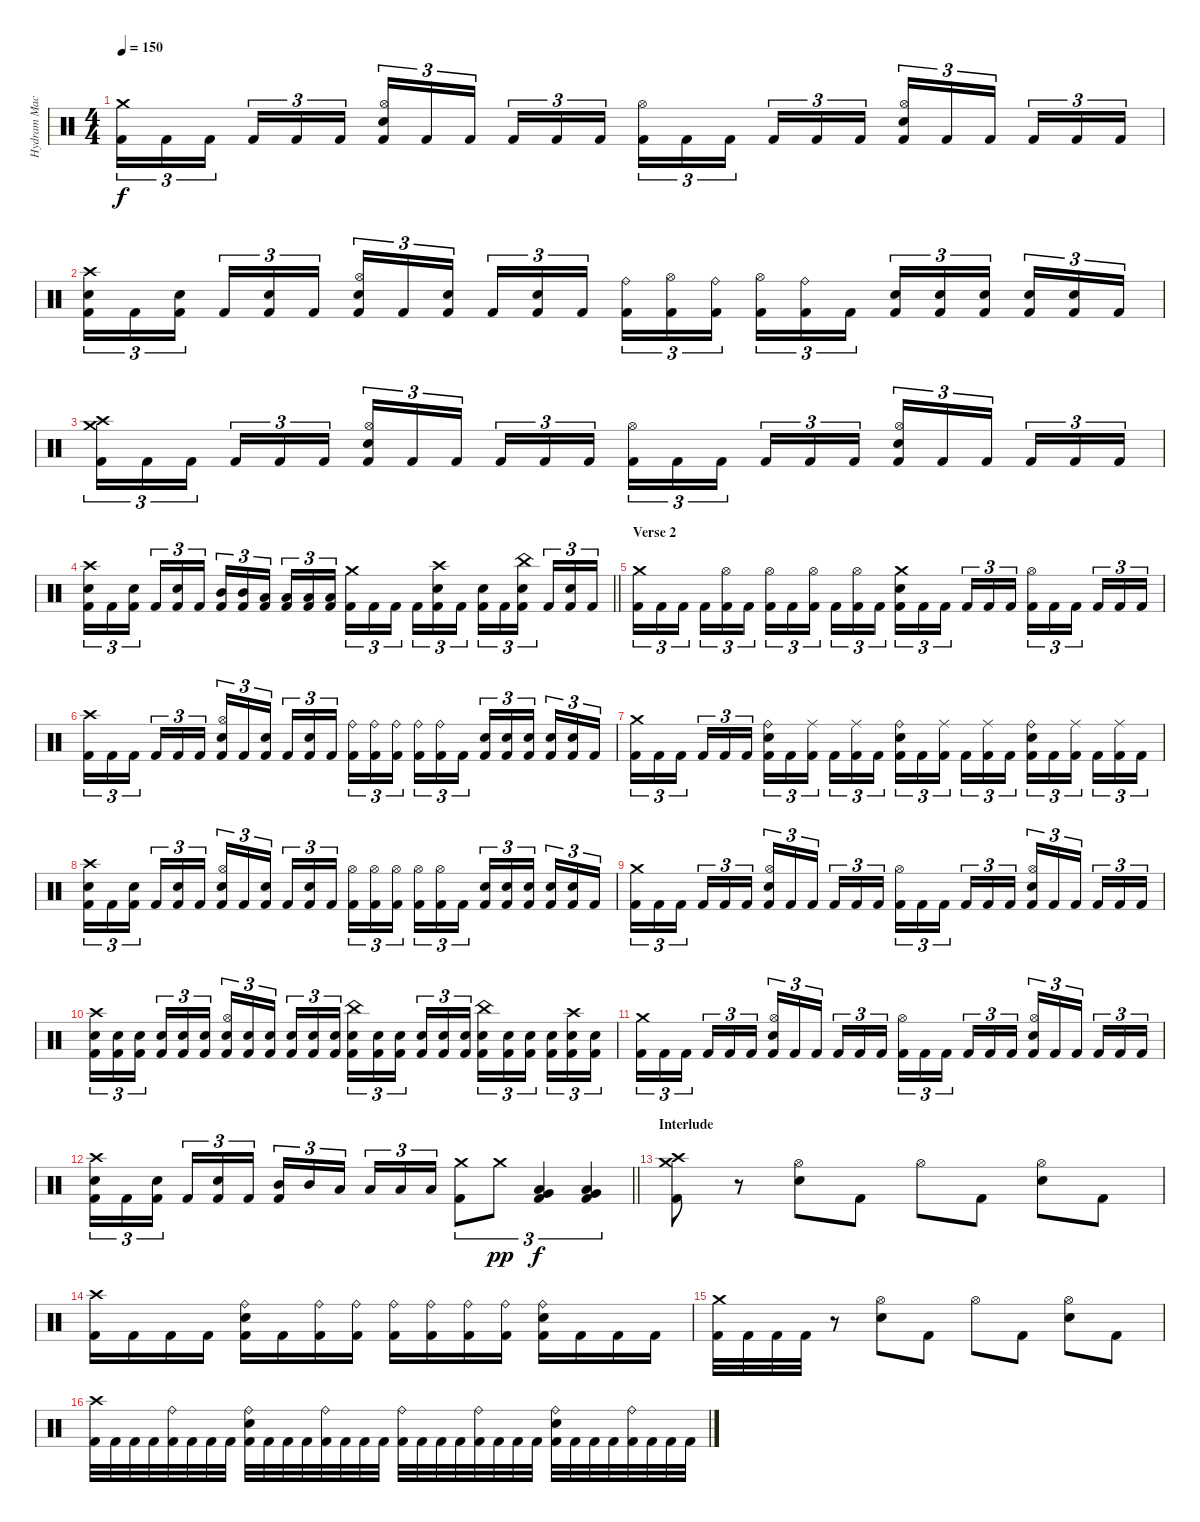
\track ("Hydram Machine" "Hydram Mac") {instrument percussion}
\staff {score}
\articulation defaults
\ts (4 4)
\tempo 150
\clef neutral
\ks c
("Crash medium (hit)" "Kick (hit) 2").16{tu (3 2) dy f} "Kick (hit) 2".16{tu (3 2)} "Kick (hit) 2".16{tu (3 2) beam splitsecondary} "Kick (hit) 2".16{tu (3 2)} "Kick (hit) 2".16{tu (3 2)} "Kick (hit) 2".16{tu (3 2)} ("Hi-Hat (open)" "Electric Snare (hit)" "Kick (hit) 2").16{tu (3 2)} "Kick (hit) 2".16{tu (3 2)} "Kick (hit) 2".16{tu (3 2) beam splitsecondary} "Kick (hit) 2".16{tu (3 2)} "Kick (hit) 2".16{tu (3 2)} "Kick (hit) 2".16{tu (3 2)} ("Hi-Hat (open)" "Kick (hit) 2").16{tu (3 2)} "Kick (hit) 2".16{tu (3 2)} "Kick (hit) 2".16{tu (3 2) beam splitsecondary} "Kick (hit) 2".16{tu (3 2)} "Kick (hit) 2".16{tu (3 2)} "Kick (hit) 2".16{tu (3 2)} ("Hi-Hat (open)" "Electric Snare (hit)" "Kick (hit) 2").16{tu (3 2)} "Kick (hit) 2".16{tu (3 2)} "Kick (hit) 2".16{tu (3 2) beam splitsecondary} "Kick (hit) 2".16{tu (3 2)} "Kick (hit) 2".16{tu (3 2)} "Kick (hit) 2".16{tu (3 2)} |
("Crash high (hit)" "Electric Snare (hit)" "Kick (hit) 2").16{tu (3 2)} "Kick (hit) 2".16{tu (3 2)} ("Electric Snare (hit)" "Kick (hit) 2").16{tu (3 2) beam splitsecondary} "Kick (hit) 2".16{tu (3 2)} ("Electric Snare (hit)" "Kick (hit) 2").16{tu (3 2)} "Kick (hit) 2".16{tu (3 2)} ("Hi-Hat (open)" "Electric Snare (hit)" "Kick (hit) 2").16{tu (3 2)} "Kick (hit) 2".16{tu (3 2)} ("Electric Snare (hit)" "Kick (hit) 2").16{tu (3 2) beam splitsecondary} "Kick (hit) 2".16{tu (3 2)} ("Electric Snare (hit)" "Kick (hit) 2").16{tu (3 2)} "Kick (hit) 2".16{tu (3 2)} ("Ride (bell)" "Kick (hit) 2").16{tu (3 2)} ("Hi-Hat (open)" "Kick (hit) 2").16{tu (3 2)} ("Ride (bell)" "Kick (hit) 2").16{tu (3 2) beam splitsecondary} ("Hi-Hat (open)" "Kick (hit) 2").16{tu (3 2)} ("Ride (bell)" "Kick (hit) 2").16{tu (3 2)} "Kick (hit) 2".16{tu (3 2)} ("Electric Snare (hit)" "Kick (hit) 2").16{tu (3 2)} ("Electric Snare (hit)" "Kick (hit) 2").16{tu (3 2)} ("Electric Snare (hit)" "Kick (hit) 2").16{tu (3 2) beam splitsecondary} ("Electric Snare (hit)" "Kick (hit) 2").16{tu (3 2)} ("Electric Snare (hit)" "Kick (hit) 2").16{tu (3 2)} "Kick (hit) 2".16{tu (3 2)} |
("Crash medium (hit)" "Crash high (hit)" "Kick (hit) 2").16{tu (3 2)} "Kick (hit) 2".16{tu (3 2)} "Kick (hit) 2".16{tu (3 2) beam splitsecondary} "Kick (hit) 2".16{tu (3 2)} "Kick (hit) 2".16{tu (3 2)} "Kick (hit) 2".16{tu (3 2)} ("Hi-Hat (open)" "Electric Snare (hit)" "Kick (hit) 2").16{tu (3 2)} "Kick (hit) 2".16{tu (3 2)} "Kick (hit) 2".16{tu (3 2) beam splitsecondary} "Kick (hit) 2".16{tu (3 2)} "Kick (hit) 2".16{tu (3 2)} "Kick (hit) 2".16{tu (3 2)} ("Hi-Hat (open)" "Kick (hit) 2").16{tu (3 2)} "Kick (hit) 2".16{tu (3 2)} "Kick (hit) 2".16{tu (3 2) beam splitsecondary} "Kick (hit) 2".16{tu (3 2)} "Kick (hit) 2".16{tu (3 2)} "Kick (hit) 2".16{tu (3 2)} ("Hi-Hat (open)" "Electric Snare (hit)" "Kick (hit) 2").16{tu (3 2)} "Kick (hit) 2".16{tu (3 2)} "Kick (hit) 2".16{tu (3 2) beam splitsecondary} "Kick (hit) 2".16{tu (3 2)} "Kick (hit) 2".16{tu (3 2)} "Kick (hit) 2".16{tu (3 2)} |
\barLineRight lightlight
("Crash high (hit)" "Electric Snare (hit)" "Kick (hit) 2").16{tu (3 2)} "Kick (hit) 2".16{tu (3 2)} ("Electric Snare (hit)" "Kick (hit) 2").16{tu (3 2) beam splitsecondary} "Kick (hit) 2".16{tu (3 2)} ("Electric Snare (hit)" "Kick (hit) 2").16{tu (3 2)} "Kick (hit) 2".16{tu (3 2)} ("Mid Tom (hit)" "Kick (hit) 2").16{tu (3 2)} ("Mid Tom (hit)" "Kick (hit) 2").16{tu (3 2)} ("Low Tom (hit)" "Kick (hit) 2").16{tu (3 2) beam splitsecondary} ("Low Tom (hit)" "Kick (hit) 2").16{tu (3 2)} ("Low Tom (hit)" "Kick (hit) 2").16{tu (3 2)} ("Low Tom (hit)" "Kick (hit) 2").16{tu (3 2)} ("Crash medium (hit)" "Kick (hit) 2").16{tu (3 2)} "Kick (hit) 2".16{tu (3 2)} "Kick (hit) 2".16{tu (3 2) beam splitsecondary} "Kick (hit) 2".16{tu (3 2)} ("Crash high (hit)" "Electric Snare (hit)" "Kick (hit) 2").16{tu (3 2)} "Kick (hit) 2".16{tu (3 2)} ("Electric Snare (hit)" "Kick (hit) 2").16{tu (3 2)} "Kick (hit) 2".16{tu (3 2)} ("China (hit)" "Electric Snare (hit)" "Kick (hit) 2").16{tu (3 2) beam splitsecondary} "Kick (hit) 2".16{tu (3 2)} ("Electric Snare (hit)" "Kick (hit) 2").16{tu (3 2)} "Kick (hit) 2".16{tu (3 2)} |
\section ("" "Verse 2")
("Crash medium (hit)" "Kick (hit) 2").16{tu (3 2)} "Kick (hit) 2".16{tu (3 2)} "Kick (hit) 2".16{tu (3 2) beam splitsecondary} "Kick (hit) 2".16{tu (3 2)} ("Hi-Hat (open)" "Kick (hit) 2").16{tu (3 2)} "Kick (hit) 2".16{tu (3 2)} ("Hi-Hat (open)" "Kick (hit) 2").16{tu (3 2)} "Kick (hit) 2".16{tu (3 2)} ("Hi-Hat (open)" "Kick (hit) 2").16{tu (3 2) beam splitsecondary} "Kick (hit) 2".16{tu (3 2)} ("Hi-Hat (open)" "Kick (hit) 2").16{tu (3 2)} "Kick (hit) 2".16{tu (3 2)} ("Crash medium (hit)" "Electric Snare (hit)" "Kick (hit) 2").16{tu (3 2)} "Kick (hit) 2".16{tu (3 2)} "Kick (hit) 2".16{tu (3 2) beam splitsecondary} "Kick (hit) 2".16{tu (3 2)} "Kick (hit) 2".16{tu (3 2)} "Kick (hit) 2".16{tu (3 2)} ("Hi-Hat (open)" "Kick (hit) 2").16{tu (3 2)} "Kick (hit) 2".16{tu (3 2)} "Kick (hit) 2".16{tu (3 2) beam splitsecondary} "Kick (hit) 2".16{tu (3 2)} "Kick (hit) 2".16{tu (3 2)} "Kick (hit) 2".16{tu (3 2)} |
("Crash high (hit)" "Kick (hit) 2").16{tu (3 2)} "Kick (hit) 2".16{tu (3 2)} "Kick (hit) 2".16{tu (3 2) beam splitsecondary} "Kick (hit) 2".16{tu (3 2)} "Kick (hit) 2".16{tu (3 2)} "Kick (hit) 2".16{tu (3 2)} ("Hi-Hat (open)" "Electric Snare (hit)" "Kick (hit) 2").16{tu (3 2)} "Kick (hit) 2".16{tu (3 2)} ("Electric Snare (hit)" "Kick (hit) 2").16{tu (3 2) beam splitsecondary} "Kick (hit) 2".16{tu (3 2)} ("Electric Snare (hit)" "Kick (hit) 2").16{tu (3 2)} "Kick (hit) 2".16{tu (3 2)} ("Ride (bell)" "Kick (hit) 2").16{tu (3 2)} ("Ride (bell)" "Kick (hit) 2").16{tu (3 2)} ("Ride (bell)" "Kick (hit) 2").16{tu (3 2) beam splitsecondary} ("Ride (bell)" "Kick (hit) 2").16{tu (3 2)} ("Ride (bell)" "Kick (hit) 2").16{tu (3 2)} "Kick (hit) 2".16{tu (3 2)} ("Electric Snare (hit)" "Kick (hit) 2").16{tu (3 2)} ("Electric Snare (hit)" "Kick (hit) 2").16{tu (3 2)} ("Electric Snare (hit)" "Kick (hit) 2").16{tu (3 2) beam splitsecondary} ("Electric Snare (hit)" "Kick (hit) 2").16{tu (3 2)} ("Electric Snare (hit)" "Kick (hit) 2").16{tu (3 2)} "Kick (hit) 2".16{tu (3 2)} |
("Crash medium (hit)" "Kick (hit) 2").16{tu (3 2)} "Kick (hit) 2".16{tu (3 2)} "Kick (hit) 2".16{tu (3 2) beam splitsecondary} "Kick (hit) 2".16{tu (3 2)} "Kick (hit) 2".16{tu (3 2)} "Kick (hit) 2".16{tu (3 2)} ("Ride (bell)" "Electric Snare (hit)" "Kick (hit) 2").16{tu (3 2)} "Kick (hit) 2".16{tu (3 2)} ("Ride (middle)" "Kick (hit) 2").16{tu (3 2) beam splitsecondary} "Kick (hit) 2".16{tu (3 2)} ("Ride (middle)" "Kick (hit) 2").16{tu (3 2)} "Kick (hit) 2".16{tu (3 2)} ("Ride (bell)" "Electric Snare (hit)" "Kick (hit) 2").16{tu (3 2)} "Kick (hit) 2".16{tu (3 2)} ("Ride (middle)" "Kick (hit) 2").16{tu (3 2) beam splitsecondary} "Kick (hit) 2".16{tu (3 2)} ("Ride (middle)" "Kick (hit) 2").16{tu (3 2)} "Kick (hit) 2".16{tu (3 2)} ("Ride (bell)" "Electric Snare (hit)" "Kick (hit) 2").16{tu (3 2)} "Kick (hit) 2".16{tu (3 2)} ("Ride (middle)" "Kick (hit) 2").16{tu (3 2) beam splitsecondary} "Kick (hit) 2".16{tu (3 2)} ("Ride (middle)" "Kick (hit) 2").16{tu (3 2)} "Kick (hit) 2".16{tu (3 2)} |
("Crash high (hit)" "Electric Snare (hit)" "Kick (hit) 2").16{tu (3 2)} "Kick (hit) 2".16{tu (3 2)} ("Electric Snare (hit)" "Kick (hit) 2").16{tu (3 2) beam splitsecondary} "Kick (hit) 2".16{tu (3 2)} ("Electric Snare (hit)" "Kick (hit) 2").16{tu (3 2)} "Kick (hit) 2".16{tu (3 2)} ("Hi-Hat (open)" "Electric Snare (hit)" "Kick (hit) 2").16{tu (3 2)} "Kick (hit) 2".16{tu (3 2)} ("Electric Snare (hit)" "Kick (hit) 2").16{tu (3 2) beam splitsecondary} "Kick (hit) 2".16{tu (3 2)} ("Electric Snare (hit)" "Kick (hit) 2").16{tu (3 2)} "Kick (hit) 2".16{tu (3 2)} ("Hi-Hat (open)" "Kick (hit) 2").16{tu (3 2)} ("Hi-Hat (open)" "Kick (hit) 2").16{tu (3 2)} ("Hi-Hat (open)" "Kick (hit) 2").16{tu (3 2) beam splitsecondary} ("Hi-Hat (open)" "Kick (hit) 2").16{tu (3 2)} ("Hi-Hat (open)" "Kick (hit) 2").16{tu (3 2)} "Kick (hit) 2".16{tu (3 2)} ("Electric Snare (hit)" "Kick (hit) 2").16{tu (3 2)} ("Electric Snare (hit)" "Kick (hit) 2").16{tu (3 2)} ("Electric Snare (hit)" "Kick (hit) 2").16{tu (3 2) beam splitsecondary} ("Electric Snare (hit)" "Kick (hit) 2").16{tu (3 2)} ("Electric Snare (hit)" "Kick (hit) 2").16{tu (3 2)} "Kick (hit) 2".16{tu (3 2)} |
("Crash medium (hit)" "Kick (hit) 2").16{tu (3 2)} "Kick (hit) 2".16{tu (3 2)} "Kick (hit) 2".16{tu (3 2) beam splitsecondary} "Kick (hit) 2".16{tu (3 2)} "Kick (hit) 2".16{tu (3 2)} "Kick (hit) 2".16{tu (3 2)} ("Hi-Hat (open)" "Electric Snare (hit)" "Kick (hit) 2").16{tu (3 2)} "Kick (hit) 2".16{tu (3 2)} "Kick (hit) 2".16{tu (3 2) beam splitsecondary} "Kick (hit) 2".16{tu (3 2)} "Kick (hit) 2".16{tu (3 2)} "Kick (hit) 2".16{tu (3 2)} ("Hi-Hat (open)" "Kick (hit) 2").16{tu (3 2)} "Kick (hit) 2".16{tu (3 2)} "Kick (hit) 2".16{tu (3 2) beam splitsecondary} "Kick (hit) 2".16{tu (3 2)} "Kick (hit) 2".16{tu (3 2)} "Kick (hit) 2".16{tu (3 2)} ("Hi-Hat (open)" "Electric Snare (hit)" "Kick (hit) 2").16{tu (3 2)} "Kick (hit) 2".16{tu (3 2)} "Kick (hit) 2".16{tu (3 2) beam splitsecondary} "Kick (hit) 2".16{tu (3 2)} "Kick (hit) 2".16{tu (3 2)} "Kick (hit) 2".16{tu (3 2)} |
("Crash high (hit)" "Electric Snare (hit)" "Kick (hit) 2").16{tu (3 2)} ("Electric Snare (hit)" "Kick (hit) 2").16{tu (3 2)} ("Electric Snare (hit)" "Kick (hit) 2").16{tu (3 2) beam splitsecondary} ("Electric Snare (hit)" "Kick (hit) 2").16{tu (3 2)} ("Electric Snare (hit)" "Kick (hit) 2").16{tu (3 2)} ("Electric Snare (hit)" "Kick (hit) 2").16{tu (3 2)} ("Hi-Hat (open)" "Electric Snare (hit)" "Kick (hit) 2").16{tu (3 2)} ("Electric Snare (hit)" "Kick (hit) 2").16{tu (3 2)} ("Electric Snare (hit)" "Kick (hit) 2").16{tu (3 2) beam splitsecondary} ("Electric Snare (hit)" "Kick (hit) 2").16{tu (3 2)} ("Electric Snare (hit)" "Kick (hit) 2").16{tu (3 2)} ("Electric Snare (hit)" "Kick (hit) 2").16{tu (3 2)} ("China (hit)" "Electric Snare (hit)" "Kick (hit) 2").16{tu (3 2)} ("Electric Snare (hit)" "Kick (hit) 2").16{tu (3 2)} ("Electric Snare (hit)" "Kick (hit) 2").16{tu (3 2) beam splitsecondary} ("Electric Snare (hit)" "Kick (hit) 2").16{tu (3 2)} ("Electric Snare (hit)" "Kick (hit) 2").16{tu (3 2)} ("Electric Snare (hit)" "Kick (hit) 2").16{tu (3 2)} ("China (hit)" "Electric Snare (hit)" "Kick (hit) 2").16{tu (3 2)} ("Electric Snare (hit)" "Kick (hit) 2").16{tu (3 2)} ("Electric Snare (hit)" "Kick (hit) 2").16{tu (3 2) beam splitsecondary} ("Electric Snare (hit)" "Kick (hit) 2").16{tu (3 2)} ("Crash high (hit)" "Electric Snare (hit)" "Kick (hit) 2").16{tu (3 2)} ("Electric Snare (hit)" "Kick (hit) 2").16{tu (3 2)} |
("Crash medium (hit)" "Kick (hit) 2").16{tu (3 2)} "Kick (hit) 2".16{tu (3 2)} "Kick (hit) 2".16{tu (3 2) beam splitsecondary} "Kick (hit) 2".16{tu (3 2)} "Kick (hit) 2".16{tu (3 2)} "Kick (hit) 2".16{tu (3 2)} ("Hi-Hat (open)" "Electric Snare (hit)" "Kick (hit) 2").16{tu (3 2)} "Kick (hit) 2".16{tu (3 2)} "Kick (hit) 2".16{tu (3 2) beam splitsecondary} "Kick (hit) 2".16{tu (3 2)} "Kick (hit) 2".16{tu (3 2)} "Kick (hit) 2".16{tu (3 2)} ("Hi-Hat (open)" "Kick (hit) 2").16{tu (3 2)} "Kick (hit) 2".16{tu (3 2)} "Kick (hit) 2".16{tu (3 2) beam splitsecondary} "Kick (hit) 2".16{tu (3 2)} "Kick (hit) 2".16{tu (3 2)} "Kick (hit) 2".16{tu (3 2)} ("Hi-Hat (open)" "Electric Snare (hit)" "Kick (hit) 2").16{tu (3 2)} "Kick (hit) 2".16{tu (3 2)} "Kick (hit) 2".16{tu (3 2) beam splitsecondary} "Kick (hit) 2".16{tu (3 2)} "Kick (hit) 2".16{tu (3 2)} "Kick (hit) 2".16{tu (3 2)} |
\barLineRight lightlight
("Crash high (hit)" "Electric Snare (hit)" "Kick (hit) 2").16{tu (3 2)} "Kick (hit) 2".16{tu (3 2)} ("Electric Snare (hit)" "Kick (hit) 2").16{tu (3 2) beam splitsecondary} "Kick (hit) 2".16{tu (3 2)} ("Electric Snare (hit)" "Kick (hit) 2").16{tu (3 2)} "Kick (hit) 2".16{tu (3 2)} ("Mid Tom (hit)" "Kick (hit) 2").16{tu (3 2)} "Mid Tom (hit)".16{tu (3 2)} "Low Tom (hit)".16{tu (3 2) beam splitsecondary} "Low Tom (hit)".16{tu (3 2)} "Low Tom (hit)".16{tu (3 2)} "Low Tom (hit)".16{tu (3 2)} ("Crash medium (hit)" "Kick (hit) 2").8{tu (3 2)} "Crash medium (hit)".8{tu (3 2) dy pp} ("Low Tom (hit)" "Very Low Tom (hit)" "Kick (hit) 2").4{tu (3 2) dy f} ("Very Low Tom (hit)" "Low Floor Tom (hit)" "Kick (hit) 2").4{tu (3 2)} |
\section ("" "Interlude")
("Crash medium (hit)" "Crash high (hit)" "Kick (hit) 2").8 r.8 ("Hi-Hat (open)" "Electric Snare (hit)").8 "Kick (hit) 2".8 "Hi-Hat (open)".8 "Kick (hit) 2".8 ("Hi-Hat (open)" "Electric Snare (hit)").8 "Kick (hit) 2".8 |
("Crash high (hit)" "Kick (hit) 2").16 "Kick (hit) 2".16 "Kick (hit) 2".16 "Kick (hit) 2".16 ("Ride (bell)" "Electric Snare (hit)" "Kick (hit) 2").16 "Kick (hit) 2".16 ("Ride (bell)" "Kick (hit) 2").16 ("Ride (bell)" "Kick (hit) 2").16 ("Ride (bell)" "Kick (hit) 2").16 ("Ride (bell)" "Kick (hit) 2").16 ("Ride (bell)" "Kick (hit) 2").16 ("Ride (bell)" "Kick (hit) 2").16 ("Ride (bell)" "Electric Snare (hit)" "Kick (hit) 2").16 "Kick (hit) 2".16 "Kick (hit) 2".16 "Kick (hit) 2".16 |
("Crash medium (hit)" "Kick (hit) 2").32 "Kick (hit) 2".32 "Kick (hit) 2".32 "Kick (hit) 2".32 r.8 ("Hi-Hat (open)" "Electric Snare (hit)").8 "Kick (hit) 2".8 "Hi-Hat (open)".8 "Kick (hit) 2".8 ("Hi-Hat (open)" "Electric Snare (hit)").8 "Kick (hit) 2".8 |
("Crash high (hit)" "Kick (hit) 2").32 "Kick (hit) 2".32 "Kick (hit) 2".32 "Kick (hit) 2".32 ("Ride (bell)" "Kick (hit) 2").32 "Kick (hit) 2".32 "Kick (hit) 2".32 "Kick (hit) 2".32 ("Ride (bell)" "Electric Snare (hit)" "Kick (hit) 2").32 "Kick (hit) 2".32 "Kick (hit) 2".32 "Kick (hit) 2".32 ("Ride (bell)" "Kick (hit) 2").32 "Kick (hit) 2".32 "Kick (hit) 2".32 "Kick (hit) 2".32 ("Ride (bell)" "Kick (hit) 2").32 "Kick (hit) 2".32 "Kick (hit) 2".32 "Kick (hit) 2".32 ("Ride (bell)" "Kick (hit) 2").32 "Kick (hit) 2".32 "Kick (hit) 2".32 "Kick (hit) 2".32 ("Ride (bell)" "Electric Snare (hit)" "Kick (hit) 2").32 "Kick (hit) 2".32 "Kick (hit) 2".32 "Kick (hit) 2".32 ("Ride (bell)" "Kick (hit) 2").32 "Kick (hit) 2".32 "Kick (hit) 2".32 "Kick (hit) 2".32
